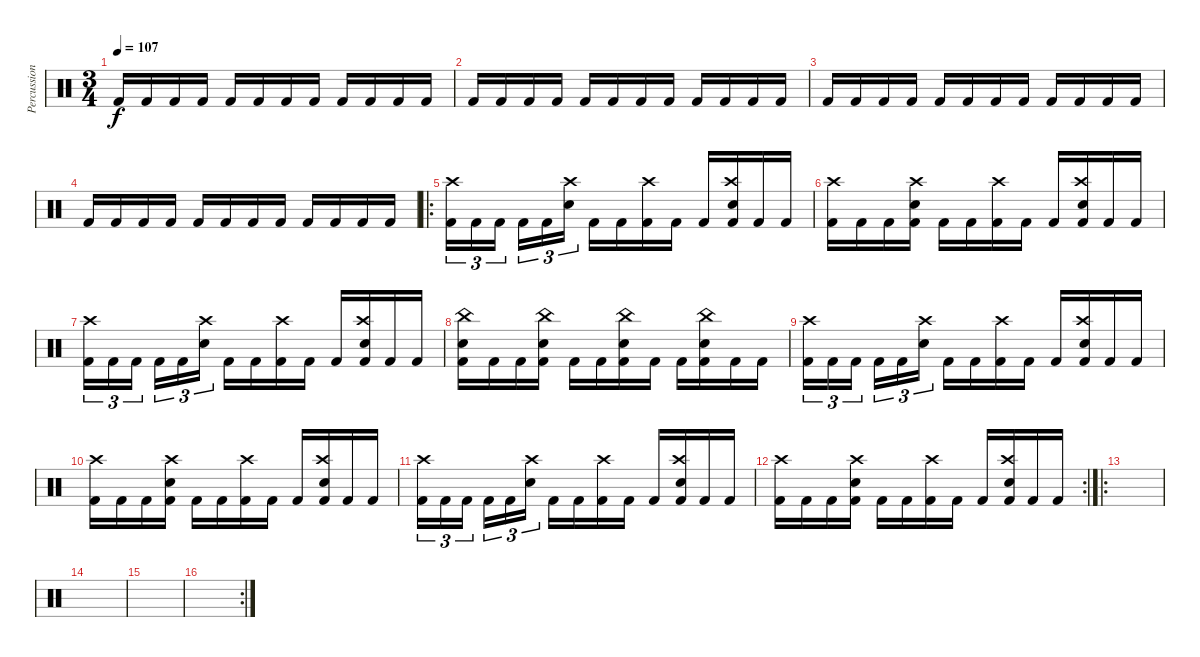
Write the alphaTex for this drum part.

\track ("Percussion" "Percussion") {instrument percussion}
\staff {score}
\articulation defaults
\ts (3 4)
\tempo 107
\clef neutral
\ks c "Kick (hit) 2".16{dy f} "Kick (hit) 2".16 "Kick (hit) 2".16 "Kick (hit) 2".16 "Kick (hit) 2".16 "Kick (hit) 2".16 "Kick (hit) 2".16 "Kick (hit) 2".16 "Kick (hit) 2".16 "Kick (hit) 2".16 "Kick (hit) 2".16 "Kick (hit) 2".16
|
"Kick (hit) 2".16 "Kick (hit) 2".16 "Kick (hit) 2".16 "Kick (hit) 2".16 "Kick (hit) 2".16 "Kick (hit) 2".16 "Kick (hit) 2".16 "Kick (hit) 2".16 "Kick (hit) 2".16 "Kick (hit) 2".16 "Kick (hit) 2".16 "Kick (hit) 2".16 |
"Kick (hit) 2".16 "Kick (hit) 2".16 "Kick (hit) 2".16 "Kick (hit) 2".16 "Kick (hit) 2".16 "Kick (hit) 2".16 "Kick (hit) 2".16 "Kick (hit) 2".16 "Kick (hit) 2".16 "Kick (hit) 2".16 "Kick (hit) 2".16 "Kick (hit) 2".16 |
"Kick (hit) 2".16 "Kick (hit) 2".16 "Kick (hit) 2".16 "Kick (hit) 2".16 "Kick (hit) 2".16 "Kick (hit) 2".16 "Kick (hit) 2".16 "Kick (hit) 2".16 "Kick (hit) 2".16 "Kick (hit) 2".16 "Kick (hit) 2".16 "Kick (hit) 2".16 |
\ro
("Crash high (hit)" "Kick (hit) 2").16{tu (3 2)} "Kick (hit) 2".16{tu (3 2)} "Kick (hit) 2".16{tu (3 2) beam splitsecondary} "Kick (hit) 2".16{tu (3 2)} "Kick (hit) 2".16{tu (3 2)} ("Crash high (hit)" "Electric Snare (hit)").16{tu (3 2)} "Kick (hit) 2".16 "Kick (hit) 2".16 ("Crash high (hit)" "Kick (hit) 2").16 "Kick (hit) 2".16 "Kick (hit) 2".16 ("Crash high (hit)" "Electric Snare (hit)" "Kick (hit) 2").16 "Kick (hit) 2".16 "Kick (hit) 2".16 |
("Crash high (hit)" "Kick (hit) 2").16 "Kick (hit) 2".16 "Kick (hit) 2".16 ("Crash high (hit)" "Electric Snare (hit)" "Kick (hit) 2").16 "Kick (hit) 2".16 "Kick (hit) 2".16 ("Crash high (hit)" "Kick (hit) 2").16 "Kick (hit) 2".16 "Kick (hit) 2".16 ("Crash high (hit)" "Electric Snare (hit)" "Kick (hit) 2").16 "Kick (hit) 2".16 "Kick (hit) 2".16 |
("Crash high (hit)" "Kick (hit) 2").16{tu (3 2)} "Kick (hit) 2".16{tu (3 2)} "Kick (hit) 2".16{tu (3 2) beam splitsecondary} "Kick (hit) 2".16{tu (3 2)} "Kick (hit) 2".16{tu (3 2)} ("Crash high (hit)" "Electric Snare (hit)").16{tu (3 2)} "Kick (hit) 2".16 "Kick (hit) 2".16 ("Crash high (hit)" "Kick (hit) 2").16 "Kick (hit) 2".16 "Kick (hit) 2".16 ("Crash high (hit)" "Electric Snare (hit)" "Kick (hit) 2").16 "Kick (hit) 2".16 "Kick (hit) 2".16 |
("Electric Snare (hit)" "China (hit)" "Kick (hit) 2").16 "Kick (hit) 2".16 "Kick (hit) 2".16 ("Electric Snare (hit)" "China (hit)" "Kick (hit) 2").16 "Kick (hit) 2".16 "Kick (hit) 2".16 ("Electric Snare (hit)" "China (hit)" "Kick (hit) 2").16 "Kick (hit) 2".16 "Kick (hit) 2".16 ("Electric Snare (hit)" "China (hit)" "Kick (hit) 2").16 "Kick (hit) 2".16 "Kick (hit) 2".16 |
("Crash high (hit)" "Kick (hit) 2").16{tu (3 2)} "Kick (hit) 2".16{tu (3 2)} "Kick (hit) 2".16{tu (3 2) beam splitsecondary} "Kick (hit) 2".16{tu (3 2)} "Kick (hit) 2".16{tu (3 2)} ("Crash high (hit)" "Electric Snare (hit)").16{tu (3 2)} "Kick (hit) 2".16 "Kick (hit) 2".16 ("Crash high (hit)" "Kick (hit) 2").16 "Kick (hit) 2".16 "Kick (hit) 2".16 ("Crash high (hit)" "Electric Snare (hit)" "Kick (hit) 2").16 "Kick (hit) 2".16 "Kick (hit) 2".16 |
("Crash high (hit)" "Kick (hit) 2").16 "Kick (hit) 2".16 "Kick (hit) 2".16 ("Crash high (hit)" "Electric Snare (hit)" "Kick (hit) 2").16 "Kick (hit) 2".16 "Kick (hit) 2".16 ("Crash high (hit)" "Kick (hit) 2").16 "Kick (hit) 2".16 "Kick (hit) 2".16 ("Crash high (hit)" "Electric Snare (hit)" "Kick (hit) 2").16 "Kick (hit) 2".16 "Kick (hit) 2".16 |
("Crash high (hit)" "Kick (hit) 2").16{tu (3 2)} "Kick (hit) 2".16{tu (3 2)} "Kick (hit) 2".16{tu (3 2) beam splitsecondary} "Kick (hit) 2".16{tu (3 2)} "Kick (hit) 2".16{tu (3 2)} ("Crash high (hit)" "Electric Snare (hit)").16{tu (3 2)} "Kick (hit) 2".16 "Kick (hit) 2".16 ("Crash high (hit)" "Kick (hit) 2").16 "Kick (hit) 2".16 "Kick (hit) 2".16 ("Crash high (hit)" "Electric Snare (hit)" "Kick (hit) 2").16 "Kick (hit) 2".16 "Kick (hit) 2".16 |
\rc 2
("Crash high (hit)" "Kick (hit) 2").16 "Kick (hit) 2".16 "Kick (hit) 2".16 ("Crash high (hit)" "Electric Snare (hit)" "Kick (hit) 2").16 "Kick (hit) 2".16 "Kick (hit) 2".16 ("Crash high (hit)" "Kick (hit) 2").16 "Kick (hit) 2".16 "Kick (hit) 2".16 ("Crash high (hit)" "Electric Snare (hit)" "Kick (hit) 2").16 "Kick (hit) 2".16 "Kick (hit) 2".16 |
\ro
|
|
|
\rc 2
